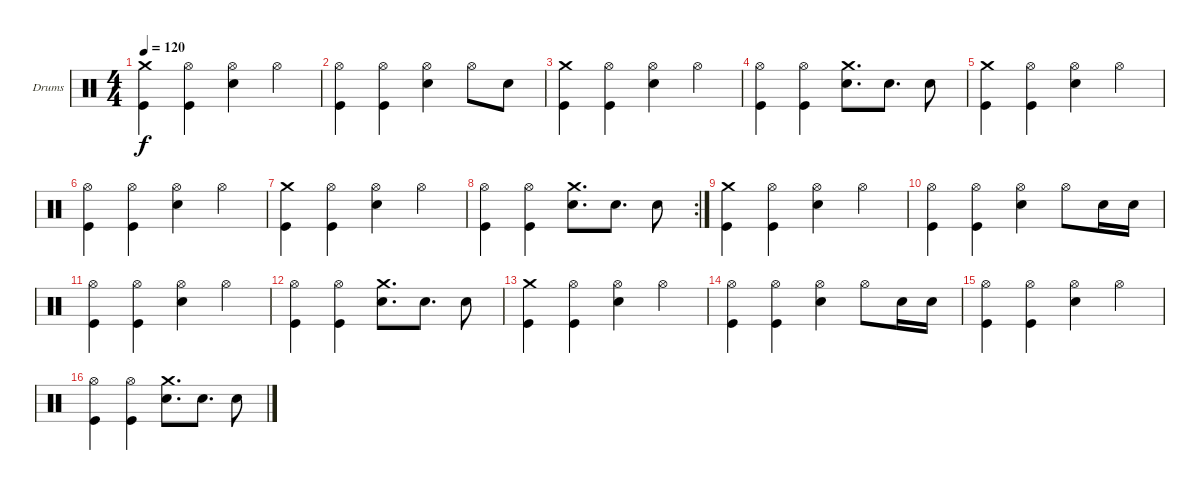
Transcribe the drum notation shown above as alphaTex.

\bracketExtendMode groupsimilarinstruments
\firstSystemTrackNameOrientation horizontal
\otherSystemsTrackNameOrientation horizontal
\track ("Drumkit" "Drums") {instrument percussion}
\staff {score}
\articulation defaults
\ts (4 4)
\tempo 120
\clef neutral
\ks c
("Crash medium (hit)" "Kick (hit)").4{dy f} ("Hi-Hat (open)" "Kick (hit)").4 ("Hi-Hat (open)" "Snare (hit) 2").4 "Hi-Hat (open)".4 |
("Hi-Hat (open)" "Kick (hit)").4 ("Hi-Hat (open)" "Kick (hit)").4 ("Hi-Hat (open)" "Snare (hit) 2").4 "Hi-Hat (open)".8 "Snare (hit) 2".8 |
("Crash medium (hit)" "Kick (hit)").4 ("Hi-Hat (open)" "Kick (hit)").4 ("Hi-Hat (open)" "Snare (hit) 2").4 "Hi-Hat (open)".4 |
("Hi-Hat (open)" "Kick (hit)").4 ("Hi-Hat (open)" "Kick (hit)").4 ("Crash medium (hit)" "Snare (hit) 2").8{d} "Snare (hit) 2".8{d} "Snare (hit) 2".8 |
("Crash medium (hit)" "Kick (hit)").4 ("Hi-Hat (open)" "Kick (hit)").4 ("Hi-Hat (open)" "Snare (hit) 2").4 "Hi-Hat (open)".4 |
("Hi-Hat (open)" "Kick (hit)").4 ("Hi-Hat (open)" "Kick (hit)").4 ("Hi-Hat (open)" "Snare (hit) 2").4 "Hi-Hat (open)".4 |
("Crash medium (hit)" "Kick (hit)").4 ("Hi-Hat (open)" "Kick (hit)").4 ("Hi-Hat (open)" "Snare (hit) 2").4 "Hi-Hat (open)".4 |
\rc 2
("Hi-Hat (open)" "Kick (hit)").4 ("Hi-Hat (open)" "Kick (hit)").4 ("Crash medium (hit)" "Snare (hit) 2").8{d} "Snare (hit) 2".8{d} "Snare (hit) 2".8 |
("Crash medium (hit)" "Kick (hit)").4 ("Hi-Hat (open)" "Kick (hit)").4 ("Hi-Hat (open)" "Snare (hit) 2").4 "Hi-Hat (open)".4 |
("Hi-Hat (open)" "Kick (hit)").4 ("Hi-Hat (open)" "Kick (hit)").4 ("Hi-Hat (open)" "Snare (hit) 2").4 "Hi-Hat (open)".8 "Snare (hit) 2".16 "Snare (hit) 2".16 |
("Hi-Hat (open)" "Kick (hit)").4 ("Hi-Hat (open)" "Kick (hit)").4 ("Hi-Hat (open)" "Snare (hit) 2").4 "Hi-Hat (open)".4 |
("Hi-Hat (open)" "Kick (hit)").4 ("Hi-Hat (open)" "Kick (hit)").4 ("Crash medium (hit)" "Snare (hit) 2").8{d} "Snare (hit) 2".8{d} "Snare (hit) 2".8 |
("Crash medium (hit)" "Kick (hit)").4 ("Hi-Hat (open)" "Kick (hit)").4 ("Hi-Hat (open)" "Snare (hit) 2").4 "Hi-Hat (open)".4 |
("Hi-Hat (open)" "Kick (hit)").4 ("Hi-Hat (open)" "Kick (hit)").4 ("Hi-Hat (open)" "Snare (hit) 2").4 "Hi-Hat (open)".8 "Snare (hit) 2".16 "Snare (hit) 2".16 |
("Hi-Hat (open)" "Kick (hit)").4 ("Hi-Hat (open)" "Kick (hit)").4 ("Hi-Hat (open)" "Snare (hit) 2").4 "Hi-Hat (open)".4 |
("Hi-Hat (open)" "Kick (hit)").4 ("Hi-Hat (open)" "Kick (hit)").4 ("Crash medium (hit)" "Snare (hit) 2").8{d} "Snare (hit) 2".8{d} "Snare (hit) 2".8
